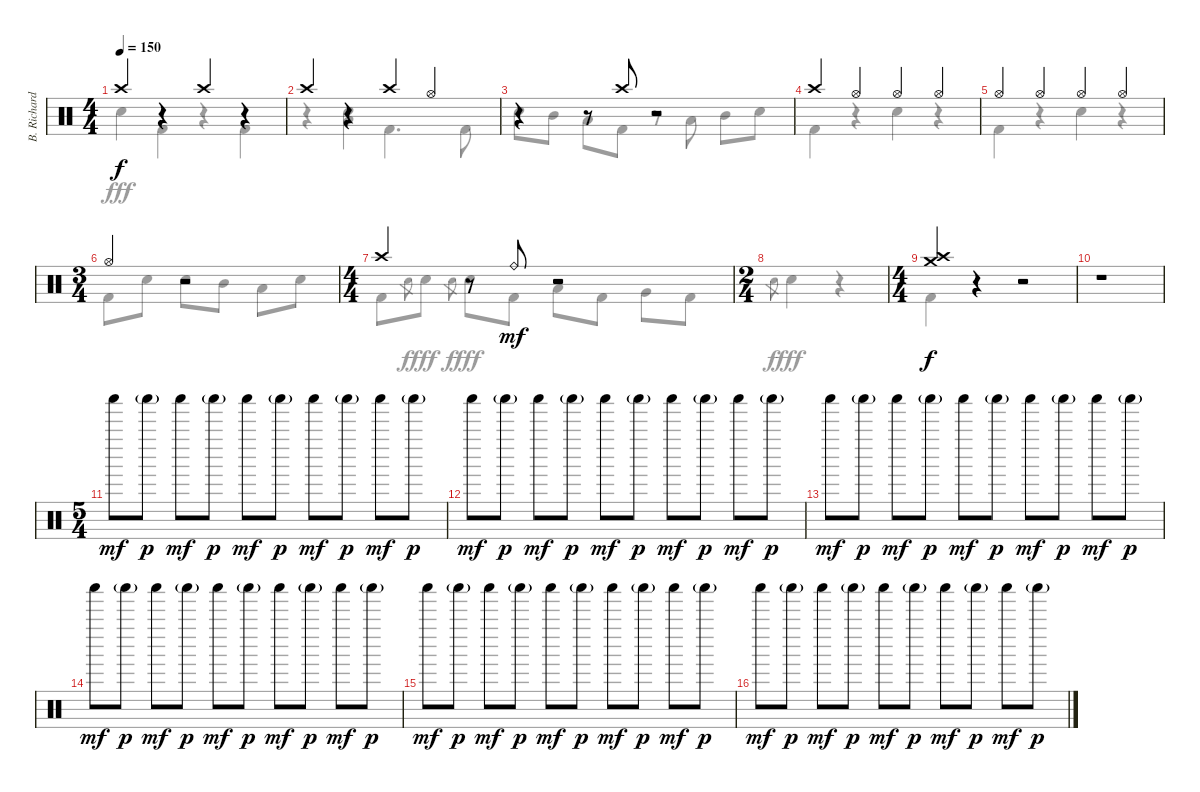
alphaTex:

\track ("B. Richardson Drums" "B. Richard") {instrument percussion}
\staff {score}
\articulation defaults
\voice
\ts (4 4)
\tempo 150
\clef neutral
\ks c "Crash high (hit)".4{dy f}
r.4 "Crash high (hit)".4 r.4 |
"Crash high (hit)".4 r.4 "Crash high (hit)".4 "Hi-Hat (open)".4 |
r.4 r.8 "Crash high (hit)".8 r.2 |
"Crash high (hit)".4 "Hi-Hat (open)".4 "Hi-Hat (open)".4 "Hi-Hat (open)".4 |
"Hi-Hat (open)".4 "Hi-Hat (open)".4 "Hi-Hat (open)".4 "Hi-Hat (open)".4 |
\ts (3 4)
"Hi-Hat (open)".4 r.2 |
\ts (4 4)
"Crash high (hit)".4 r.8 "Ride (bell)".8{dy mf} r.2 |
\ts (2 4)
|
\ts (4 4)
("Crash high (hit)" "Crash medium (hit)").4{dy f} r.4 r.2 |
r.1 |
\ts (5 4)
"Shaker (hit)".8{dy mf} "Shaker (hit)"{g}.8{dy p} "Shaker (hit)".8{dy mf} "Shaker (hit)"{g}.8{dy p} "Shaker (hit)".8{dy mf} "Shaker (hit)"{g}.8{dy p} "Shaker (hit)".8{dy mf} "Shaker (hit)"{g}.8{dy p} "Shaker (hit)".8{dy mf} "Shaker (hit)"{g}.8{dy p} |
"Shaker (hit)".8{dy mf} "Shaker (hit)"{g}.8{dy p} "Shaker (hit)".8{dy mf} "Shaker (hit)"{g}.8{dy p} "Shaker (hit)".8{dy mf} "Shaker (hit)"{g}.8{dy p} "Shaker (hit)".8{dy mf} "Shaker (hit)"{g}.8{dy p} "Shaker (hit)".8{dy mf} "Shaker (hit)"{g}.8{dy p} |
"Shaker (hit)".8{dy mf} "Shaker (hit)"{g}.8{dy p} "Shaker (hit)".8{dy mf} "Shaker (hit)"{g}.8{dy p} "Shaker (hit)".8{dy mf} "Shaker (hit)"{g}.8{dy p} "Shaker (hit)".8{dy mf} "Shaker (hit)"{g}.8{dy p} "Shaker (hit)".8{dy mf} "Shaker (hit)"{g}.8{dy p} |
"Shaker (hit)".8{dy mf} "Shaker (hit)"{g}.8{dy p} "Shaker (hit)".8{dy mf} "Shaker (hit)"{g}.8{dy p} "Shaker (hit)".8{dy mf} "Shaker (hit)"{g}.8{dy p} "Shaker (hit)".8{dy mf} "Shaker (hit)"{g}.8{dy p} "Shaker (hit)".8{dy mf} "Shaker (hit)"{g}.8{dy p} |
"Shaker (hit)".8{dy mf} "Shaker (hit)"{g}.8{dy p} "Shaker (hit)".8{dy mf} "Shaker (hit)"{g}.8{dy p} "Shaker (hit)".8{dy mf} "Shaker (hit)"{g}.8{dy p} "Shaker (hit)".8{dy mf} "Shaker (hit)"{g}.8{dy p} "Shaker (hit)".8{dy mf} "Shaker (hit)"{g}.8{dy p} |
"Shaker (hit)".8{dy mf} "Shaker (hit)"{g}.8{dy p} "Shaker (hit)".8{dy mf} "Shaker (hit)"{g}.8{dy p} "Shaker (hit)".8{dy mf} "Shaker (hit)"{g}.8{dy p} "Shaker (hit)".8{dy mf} "Shaker (hit)"{g}.8{dy p} "Shaker (hit)".8{dy mf} "Shaker (hit)"{g}.8{dy p}
\voice
\clef neutral
\ottava regular
\simile none
\ks c "Electric Snare (hit)".4{dy fff} "Kick (hit) 2".4
r.4 "Kick (hit) 2".4 |
r.4 ("Electric Snare (hit)" "Low Tom (hit)").4 "Kick (hit) 2".4{d} "Kick (hit) 2".8 |
"Electric Snare (hit)".8 "Mid Tom (hit)".8 "Low Tom (hit)".8 "Kick (hit) 2".8 r.8 "Low Tom (hit)".8 "Mid Tom (hit)".8 "Electric Snare (hit)".8 |
"Kick (hit) 2".4 r.4 "Electric Snare (hit)".4 r.4 |
"Kick (hit) 2".4 r.4 "Electric Snare (hit)".4 r.4 |
"Kick (hit) 2".8 "Electric Snare (hit)".8 "Electric Snare (hit)".8 "Mid Tom (hit)".8 "Low Tom (hit)".8 "Electric Snare (hit)".8 |
"Kick (hit) 2".8 "Electric Snare (hit)".8{gr dy f} "Electric Snare (hit)".8{dy fff} "Electric Snare (hit)".8{gr dy f} "Electric Snare (hit)".8{dy fff} "Kick (hit) 2".8 "Low Tom (hit)".8 "Kick (hit) 2".8 "Very Low Tom (hit)".8 "Kick (hit) 2".8 |
"Electric Snare (hit)".8{gr dy f} "Electric Snare (hit)".4{dy fff} r.4 |
"Kick (hit) 2".4 r.4 r.2 |
r.1 |
|
|
|
|
|
